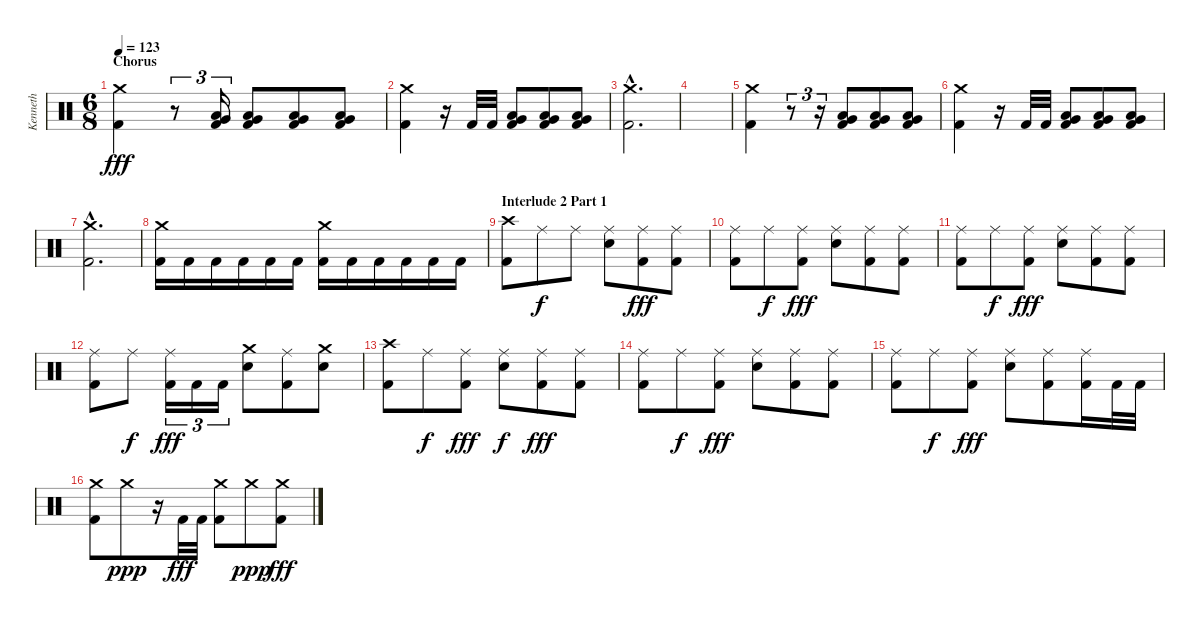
\track ("Kenneth" "Kenneth") {instrument percussion}
\staff {score}
\articulation defaults
\ts (6 8)
\section ("" "Chorus")
\tempo 123
\clef neutral
\ks c
("Crash medium (hit)" "Kick (hit) 2").4{dy fff} r.8{tu (3 2)} ("Very Low Tom (hit)" "Low Tom (hit)" "Kick (hit) 2").16{tu (3 2)} ("Very Low Tom (hit)" "Low Tom (hit)" "Kick (hit) 2").8 ("Very Low Tom (hit)" "Low Tom (hit)" "Kick (hit) 2").8 ("Very Low Tom (hit)" "Low Tom (hit)" "Kick (hit) 2").8 |
("Crash medium (hit)" "Kick (hit) 2").4 r.16 "Kick (hit) 2".32 "Kick (hit) 2".32 ("Very Low Tom (hit)" "Low Tom (hit)" "Kick (hit) 2").8 ("Very Low Tom (hit)" "Low Tom (hit)" "Kick (hit) 2").8 ("Very Low Tom (hit)" "Low Tom (hit)" "Kick (hit) 2").8 |
("Crash medium (hit)"{hac} "Kick (hit) 2"{hac}).2{d} |
|
("Crash medium (hit)" "Kick (hit) 2").4 r.8{tu (3 2)} r.16{tu (3 2)} ("Very Low Tom (hit)" "Low Tom (hit)" "Kick (hit) 2").8 ("Very Low Tom (hit)" "Low Tom (hit)" "Kick (hit) 2").8 ("Very Low Tom (hit)" "Low Tom (hit)" "Kick (hit) 2").8 |
("Crash medium (hit)" "Kick (hit) 2").4 r.16 "Kick (hit) 2".32 "Kick (hit) 2".32 ("Very Low Tom (hit)" "Low Tom (hit)" "Kick (hit) 2").8 ("Very Low Tom (hit)" "Low Tom (hit)" "Kick (hit) 2").8 ("Very Low Tom (hit)" "Low Tom (hit)" "Kick (hit) 2").8 |
("Crash medium (hit)"{hac} "Kick (hit) 2"{hac}).2{d} |
("Crash medium (hit)" "Kick (hit) 2").16 "Kick (hit) 2".16 "Kick (hit) 2".16 "Kick (hit) 2".16 "Kick (hit) 2".16 "Kick (hit) 2".16 ("Crash medium (hit)" "Kick (hit) 2").16 "Kick (hit) 2".16 "Kick (hit) 2".16 "Kick (hit) 2".16 "Kick (hit) 2".16 "Kick (hit) 2".16 |
\section ("" "Interlude 2 Part 1")
("Crash high (hit)" "Kick (hit) 2").8 "Ride (middle)".8{dy f} "Ride (middle)".8 ("Ride (middle)" "Snare (hit) 2").8 ("Ride (middle)" "Kick (hit) 2").8{dy fff} ("Ride (middle)" "Kick (hit) 2").8 |
("Ride (middle)" "Kick (hit) 2").8 "Ride (middle)".8{dy f} ("Ride (middle)" "Kick (hit) 2").8{dy fff} ("Ride (middle)" "Snare (hit) 2").8 ("Ride (middle)" "Kick (hit) 2").8 ("Ride (middle)" "Kick (hit) 2").8 |
("Ride (middle)" "Kick (hit) 2").8 "Ride (middle)".8{dy f} ("Ride (middle)" "Kick (hit) 2").8{dy fff} ("Ride (middle)" "Snare (hit) 2").8 ("Ride (middle)" "Kick (hit) 2").8 ("Ride (middle)" "Kick (hit) 2").8 |
("Ride (middle)" "Kick (hit) 2").8 "Ride (middle)".8{dy f} ("Ride (middle)" "Kick (hit) 2").16{tu (3 2) dy fff} "Kick (hit) 2".16{tu (3 2)} "Kick (hit) 2".16{tu (3 2)} ("Crash medium (hit)" "Snare (hit) 2").8 ("Ride (middle)" "Kick (hit) 2").8 ("Crash medium (hit)" "Snare (hit) 2").8 |
("Crash high (hit)" "Kick (hit) 2").8 "Ride (middle)".8{dy f} ("Ride (middle)" "Kick (hit) 2").8{dy fff} ("Ride (middle)" "Snare (hit) 2").8{dy f} ("Ride (middle)" "Kick (hit) 2").8{dy fff} ("Ride (middle)" "Kick (hit) 2").8 |
("Ride (middle)" "Kick (hit) 2").8 "Ride (middle)".8{dy f} ("Ride (middle)" "Kick (hit) 2").8{dy fff} ("Ride (middle)" "Snare (hit) 2").8 ("Ride (middle)" "Kick (hit) 2").8 ("Ride (middle)" "Kick (hit) 2").8 |
("Ride (middle)" "Kick (hit) 2").8 "Ride (middle)".8{dy f} ("Ride (middle)" "Kick (hit) 2").8{dy fff} ("Ride (middle)" "Snare (hit) 2").8 ("Ride (middle)" "Kick (hit) 2").8 ("Ride (middle)" "Kick (hit) 2").16 "Kick (hit) 2".32 "Kick (hit) 2".32 |
("Crash medium (hit)" "Kick (hit) 2").8 "Crash medium (hit)".8{dy ppp} r.16 "Kick (hit) 2".32{dy fff} "Kick (hit) 2".32 ("Crash medium (hit)" "Kick (hit) 2").8 "Crash medium (hit)".8{dy ppp} ("Crash medium (hit)" "Kick (hit) 2").8{dy fff}
